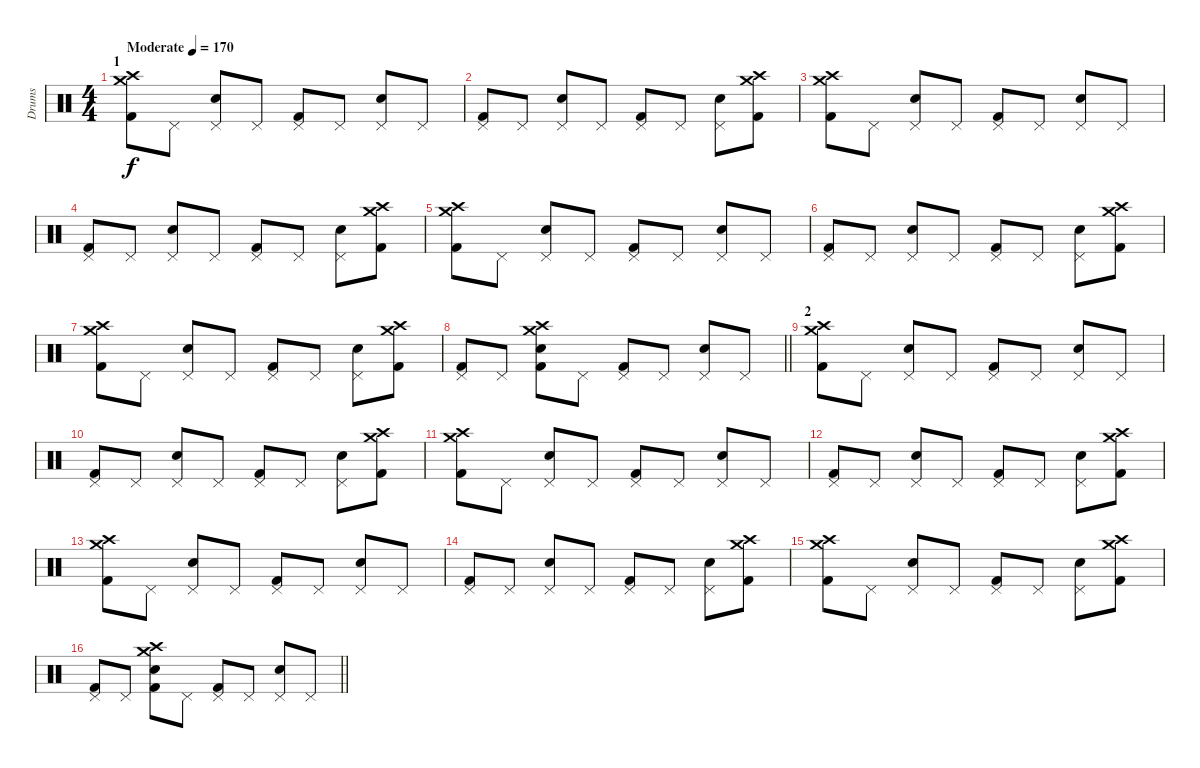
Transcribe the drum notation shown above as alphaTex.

\track ("Drums" "Drums") {instrument percussion}
\staff {score}
\articulation defaults
\ts (4 4)
\section ("" "1")
\tempo (170 "Moderate")
\clef neutral
\ks c
("Crash medium (hit)" "Crash high (hit)" "Kick (hit) 2").8{dy f} "Pedal Hi-Hat (hit)".8 ("Pedal Hi-Hat (hit)" "Snare (hit) 2").8 "Pedal Hi-Hat (hit)".8 ("Pedal Hi-Hat (hit)" "Kick (hit) 2").8 "Pedal Hi-Hat (hit)".8 ("Pedal Hi-Hat (hit)" "Snare (hit) 2").8 "Pedal Hi-Hat (hit)".8 |
("Pedal Hi-Hat (hit)" "Kick (hit) 2").8 "Pedal Hi-Hat (hit)".8 ("Pedal Hi-Hat (hit)" "Snare (hit) 2").8 "Pedal Hi-Hat (hit)".8 ("Pedal Hi-Hat (hit)" "Kick (hit) 2").8 "Pedal Hi-Hat (hit)".8 ("Pedal Hi-Hat (hit)" "Snare (hit) 2").8 ("Crash medium (hit)" "Crash high (hit)" "Kick (hit) 2").8 |
("Crash medium (hit)" "Crash high (hit)" "Kick (hit) 2").8 "Pedal Hi-Hat (hit)".8 ("Pedal Hi-Hat (hit)" "Snare (hit) 2").8 "Pedal Hi-Hat (hit)".8 ("Pedal Hi-Hat (hit)" "Kick (hit) 2").8 "Pedal Hi-Hat (hit)".8 ("Pedal Hi-Hat (hit)" "Snare (hit) 2").8 "Pedal Hi-Hat (hit)".8 |
("Pedal Hi-Hat (hit)" "Kick (hit) 2").8 "Pedal Hi-Hat (hit)".8 ("Pedal Hi-Hat (hit)" "Snare (hit) 2").8 "Pedal Hi-Hat (hit)".8 ("Pedal Hi-Hat (hit)" "Kick (hit) 2").8 "Pedal Hi-Hat (hit)".8 ("Pedal Hi-Hat (hit)" "Snare (hit) 2").8 ("Crash medium (hit)" "Crash high (hit)" "Kick (hit) 2").8 |
("Crash medium (hit)" "Crash high (hit)" "Kick (hit) 2").8 "Pedal Hi-Hat (hit)".8 ("Pedal Hi-Hat (hit)" "Snare (hit) 2").8 "Pedal Hi-Hat (hit)".8 ("Pedal Hi-Hat (hit)" "Kick (hit) 2").8 "Pedal Hi-Hat (hit)".8 ("Pedal Hi-Hat (hit)" "Snare (hit) 2").8 "Pedal Hi-Hat (hit)".8 |
("Pedal Hi-Hat (hit)" "Kick (hit) 2").8 "Pedal Hi-Hat (hit)".8 ("Pedal Hi-Hat (hit)" "Snare (hit) 2").8 "Pedal Hi-Hat (hit)".8 ("Pedal Hi-Hat (hit)" "Kick (hit) 2").8 "Pedal Hi-Hat (hit)".8 ("Pedal Hi-Hat (hit)" "Snare (hit) 2").8 ("Crash medium (hit)" "Crash high (hit)" "Kick (hit) 2").8 |
("Crash medium (hit)" "Crash high (hit)" "Kick (hit) 2").8 "Pedal Hi-Hat (hit)".8 ("Pedal Hi-Hat (hit)" "Snare (hit) 2").8 "Pedal Hi-Hat (hit)".8 ("Pedal Hi-Hat (hit)" "Kick (hit) 2").8 "Pedal Hi-Hat (hit)".8 ("Pedal Hi-Hat (hit)" "Snare (hit) 2").8 ("Crash medium (hit)" "Crash high (hit)" "Kick (hit) 2").8 |
\barLineRight lightlight
("Pedal Hi-Hat (hit)" "Kick (hit) 2").8 "Pedal Hi-Hat (hit)".8 ("Crash medium (hit)" "Crash high (hit)" "Snare (hit) 2" "Kick (hit) 2").8 "Pedal Hi-Hat (hit)".8 ("Pedal Hi-Hat (hit)" "Kick (hit) 2").8 "Pedal Hi-Hat (hit)".8 ("Pedal Hi-Hat (hit)" "Snare (hit) 2").8 "Pedal Hi-Hat (hit)".8 |
\section ("" "2")
("Crash medium (hit)" "Crash high (hit)" "Kick (hit) 2").8 "Pedal Hi-Hat (hit)".8 ("Pedal Hi-Hat (hit)" "Snare (hit) 2").8 "Pedal Hi-Hat (hit)".8 ("Pedal Hi-Hat (hit)" "Kick (hit) 2").8 "Pedal Hi-Hat (hit)".8 ("Pedal Hi-Hat (hit)" "Snare (hit) 2").8 "Pedal Hi-Hat (hit)".8 |
("Pedal Hi-Hat (hit)" "Kick (hit) 2").8 "Pedal Hi-Hat (hit)".8 ("Pedal Hi-Hat (hit)" "Snare (hit) 2").8 "Pedal Hi-Hat (hit)".8 ("Pedal Hi-Hat (hit)" "Kick (hit) 2").8 "Pedal Hi-Hat (hit)".8 ("Pedal Hi-Hat (hit)" "Snare (hit) 2").8 ("Crash medium (hit)" "Crash high (hit)" "Kick (hit) 2").8 |
("Crash medium (hit)" "Crash high (hit)" "Kick (hit) 2").8 "Pedal Hi-Hat (hit)".8 ("Pedal Hi-Hat (hit)" "Snare (hit) 2").8 "Pedal Hi-Hat (hit)".8 ("Pedal Hi-Hat (hit)" "Kick (hit) 2").8 "Pedal Hi-Hat (hit)".8 ("Pedal Hi-Hat (hit)" "Snare (hit) 2").8 "Pedal Hi-Hat (hit)".8 |
("Pedal Hi-Hat (hit)" "Kick (hit) 2").8 "Pedal Hi-Hat (hit)".8 ("Pedal Hi-Hat (hit)" "Snare (hit) 2").8 "Pedal Hi-Hat (hit)".8 ("Pedal Hi-Hat (hit)" "Kick (hit) 2").8 "Pedal Hi-Hat (hit)".8 ("Pedal Hi-Hat (hit)" "Snare (hit) 2").8 ("Crash medium (hit)" "Crash high (hit)" "Kick (hit) 2").8 |
("Crash medium (hit)" "Crash high (hit)" "Kick (hit) 2").8 "Pedal Hi-Hat (hit)".8 ("Pedal Hi-Hat (hit)" "Snare (hit) 2").8 "Pedal Hi-Hat (hit)".8 ("Pedal Hi-Hat (hit)" "Kick (hit) 2").8 "Pedal Hi-Hat (hit)".8 ("Pedal Hi-Hat (hit)" "Snare (hit) 2").8 "Pedal Hi-Hat (hit)".8 |
("Pedal Hi-Hat (hit)" "Kick (hit) 2").8 "Pedal Hi-Hat (hit)".8 ("Pedal Hi-Hat (hit)" "Snare (hit) 2").8 "Pedal Hi-Hat (hit)".8 ("Pedal Hi-Hat (hit)" "Kick (hit) 2").8 "Pedal Hi-Hat (hit)".8 ("Pedal Hi-Hat (hit)" "Snare (hit) 2").8 ("Crash medium (hit)" "Crash high (hit)" "Kick (hit) 2").8 |
("Crash medium (hit)" "Crash high (hit)" "Kick (hit) 2").8 "Pedal Hi-Hat (hit)".8 ("Pedal Hi-Hat (hit)" "Snare (hit) 2").8 "Pedal Hi-Hat (hit)".8 ("Pedal Hi-Hat (hit)" "Kick (hit) 2").8 "Pedal Hi-Hat (hit)".8 ("Pedal Hi-Hat (hit)" "Snare (hit) 2").8 ("Crash medium (hit)" "Crash high (hit)" "Kick (hit) 2").8 |
\barLineRight lightlight
("Pedal Hi-Hat (hit)" "Kick (hit) 2").8 "Pedal Hi-Hat (hit)".8 ("Crash medium (hit)" "Crash high (hit)" "Snare (hit) 2" "Kick (hit) 2").8 "Pedal Hi-Hat (hit)".8 ("Pedal Hi-Hat (hit)" "Kick (hit) 2").8 "Pedal Hi-Hat (hit)".8 ("Pedal Hi-Hat (hit)" "Snare (hit) 2").8 "Pedal Hi-Hat (hit)".8
